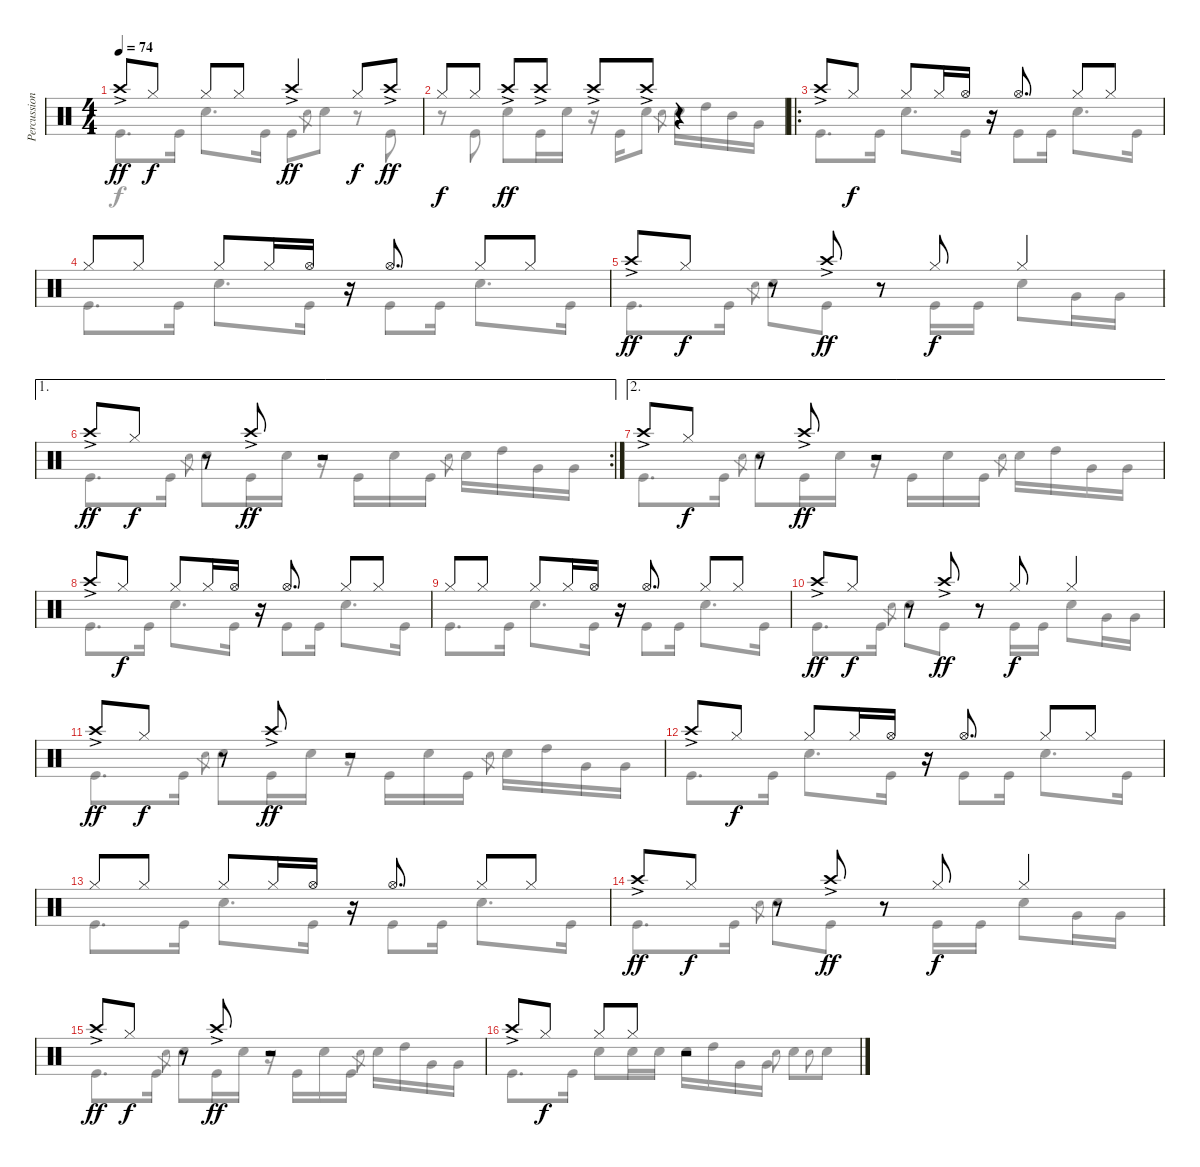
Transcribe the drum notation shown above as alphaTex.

\track ("Percussion" "Percussion") {instrument percussion}
\staff {score}
\articulation defaults
\voice
\ts (4 4)
\tempo 74
\clef neutral
\ks c "Crash high (hit)"{ac}.8{dy ff beam Up} "Hi-Hat (closed)".8{dy f beam Up} "Hi-Hat (closed)".8{beam Up} "Hi-Hat (closed)".8{beam Up} "Crash high (hit)"{ac}.4{dy ff beam Up} "Hi-Hat (closed)".8{dy f beam Up} "Crash high (hit)"{ac}.8{dy ff beam Up}
|
"Hi-Hat (closed)".8{dy f beam Up} "Hi-Hat (closed)".8{beam Up} "Crash high (hit)"{ac}.8{dy ff beam Up} "Crash high (hit)"{ac}.8{beam Up} "Crash high (hit)"{ac}.8{beam Up} "Crash high (hit)"{ac}.8{beam Up} r.4 |
\ro "Crash high (hit)"{ac}.8{beam Up} "Hi-Hat (closed)".8{dy f beam Up} "Hi-Hat (closed)".8{beam Up} "Hi-Hat (closed)".16{beam Up} "Hi-Hat (open)".16{beam Up}
r.16 "Hi-Hat (open)".8{d beam Up beam split} "Hi-Hat (closed)".8{beam Up beam merge} "Hi-Hat (closed)".8{beam Up} |
"Hi-Hat (closed)".8{beam Up} "Hi-Hat (closed)".8{beam Up} "Hi-Hat (closed)".8{beam Up} "Hi-Hat (closed)".16{beam Up} "Hi-Hat (open)".16{beam Up} r.16 "Hi-Hat (open)".8{d beam Up beam split} "Hi-Hat (closed)".8{beam Up beam merge} "Hi-Hat (closed)".8{beam Up} |
"Crash high (hit)"{ac}.8{dy ff beam Up} "Hi-Hat (closed)".8{dy f beam Up} r.8 "Crash high (hit)"{ac}.8{dy ff beam Up} r.8 "Hi-Hat (closed)".8{dy f beam Up} "Hi-Hat (closed)".4{beam Up} |
\ae 1
\rc 2 "Crash high (hit)"{ac}.8{dy ff beam Up} "Hi-Hat (closed)".8{dy f beam Up}
r.8 "Crash high (hit)"{ac}.8{dy ff beam Up} r.2 |
\ae 2 "Crash high (hit)"{ac}.8{beam Up} "Hi-Hat (closed)".8{dy f beam Up}
r.8 "Crash high (hit)"{ac}.8{dy ff beam Up} r.2 |
"Crash high (hit)"{ac}.8{beam Up} "Hi-Hat (closed)".8{dy f beam Up} "Hi-Hat (closed)".8{beam Up} "Hi-Hat (closed)".16{beam Up} "Hi-Hat (open)".16{beam Up} r.16 "Hi-Hat (open)".8{d beam Up beam split} "Hi-Hat (closed)".8{beam Up beam merge} "Hi-Hat (closed)".8{beam Up} |
"Hi-Hat (closed)".8{beam Up} "Hi-Hat (closed)".8{beam Up} "Hi-Hat (closed)".8{beam Up} "Hi-Hat (closed)".16{beam Up} "Hi-Hat (open)".16{beam Up} r.16 "Hi-Hat (open)".8{d beam Up beam split} "Hi-Hat (closed)".8{beam Up beam merge} "Hi-Hat (closed)".8{beam Up} |
"Crash high (hit)"{ac}.8{dy ff beam Up} "Hi-Hat (closed)".8{dy f beam Up} r.8 "Crash high (hit)"{ac}.8{dy ff beam Up} r.8 "Hi-Hat (closed)".8{dy f beam Up} "Hi-Hat (closed)".4{beam Up} |
"Crash high (hit)"{ac}.8{dy ff beam Up} "Hi-Hat (closed)".8{dy f beam Up} r.8 "Crash high (hit)"{ac}.8{dy ff beam Up} r.2 |
"Crash high (hit)"{ac}.8{beam Up} "Hi-Hat (closed)".8{dy f beam Up} "Hi-Hat (closed)".8{beam Up} "Hi-Hat (closed)".16{beam Up} "Hi-Hat (open)".16{beam Up} r.16 "Hi-Hat (open)".8{d beam Up beam split} "Hi-Hat (closed)".8{beam Up beam merge} "Hi-Hat (closed)".8{beam Up} |
"Hi-Hat (closed)".8{beam Up} "Hi-Hat (closed)".8{beam Up} "Hi-Hat (closed)".8{beam Up} "Hi-Hat (closed)".16{beam Up} "Hi-Hat (open)".16{beam Up} r.16 "Hi-Hat (open)".8{d beam Up beam split} "Hi-Hat (closed)".8{beam Up beam merge} "Hi-Hat (closed)".8{beam Up} |
"Crash high (hit)"{ac}.8{dy ff beam Up} "Hi-Hat (closed)".8{dy f beam Up} r.8 "Crash high (hit)"{ac}.8{dy ff beam Up} r.8 "Hi-Hat (closed)".8{dy f beam Up} "Hi-Hat (closed)".4{beam Up} |
"Crash high (hit)"{ac}.8{dy ff beam Up} "Hi-Hat (closed)".8{dy f beam Up} r.8 "Crash high (hit)"{ac}.8{dy ff beam Up} r.2 |
"Crash high (hit)"{ac}.8{beam Up} "Hi-Hat (closed)".8{dy f beam Up beam split} "Hi-Hat (closed)".8{beam Up} "Hi-Hat (closed)".8{beam Up} r.2
\voice
\clef neutral
\ottava regular
\simile none
\ks c "Kick (hit)".8{d dy f} "Kick (hit)".16 "Snare (hit) 2".8{d} "Kick (hit)".16 "Kick (hit)".8 "Snare (hit) 2".8{gr} "Snare (hit) 2".8
r.8 "Kick (hit)".8 |
r.8 "Kick (hit)".8 "Snare (hit) 2".8 "Kick (hit)".16 "Snare (hit) 2".16 r.16 "Kick (hit)".16 "Snare (hit) 2".8 "Snare (hit) 2".8{gr} "Snare (hit) 2".16 "High Tom (hit)".16 "Mid Tom (hit)".16 "Very Low Tom (hit)".16 |
"Kick (hit)".8{d} "Kick (hit)".16 "Snare (hit) 2".8{d} "Kick (hit)".16 r.16 "Kick (hit)".8 "Kick (hit)".16 "Snare (hit) 2".8{d} "Kick (hit)".16 |
"Kick (hit)".8{d} "Kick (hit)".16 "Snare (hit) 2".8{d} "Kick (hit)".16 r.16 "Kick (hit)".8 "Kick (hit)".16 "Snare (hit) 2".8{d} "Kick (hit)".16 |
"Kick (hit)".8{d} "Kick (hit)".16 "Snare (hit) 2"{h}.8{gr} "Snare (hit) 2".8 "Kick (hit)".8 r.8 "Kick (hit)".16 "Kick (hit)".16 "Snare (hit) 2".8 "Very Low Tom (hit)".16 "Very Low Tom (hit)".16 |
"Kick (hit)".8{d} "Kick (hit)".16 "Snare (hit) 2"{h}.8{gr} "Snare (hit) 2".8 "Kick (hit)".16 "Snare (hit) 2".16 r.16 "Kick (hit)".16 "Snare (hit) 2".16 "Kick (hit)".16 "Snare (hit) 2"{h}.8{gr} "Snare (hit) 2".16 "High Tom (hit)".16 "Very Low Tom (hit)".16 "Very Low Tom (hit)".16 |
"Kick (hit)".8{d} "Kick (hit)".16 "Snare (hit) 2"{h}.8{gr} "Snare (hit) 2".8 "Kick (hit)".16 "Snare (hit) 2".16 r.16 "Kick (hit)".16 "Snare (hit) 2".16 "Kick (hit)".16 "Snare (hit) 2"{h}.8{gr} "Snare (hit) 2".16 "High Tom (hit)".16 "Very Low Tom (hit)".16 "Very Low Tom (hit)".16 |
"Kick (hit)".8{d} "Kick (hit)".16 "Snare (hit) 2".8{d} "Kick (hit)".16 r.16 "Kick (hit)".8 "Kick (hit)".16 "Snare (hit) 2".8{d} "Kick (hit)".16 |
"Kick (hit)".8{d} "Kick (hit)".16 "Snare (hit) 2".8{d} "Kick (hit)".16 r.16 "Kick (hit)".8 "Kick (hit)".16 "Snare (hit) 2".8{d} "Kick (hit)".16 |
"Kick (hit)".8{d} "Kick (hit)".16 "Snare (hit) 2"{h}.8{gr} "Snare (hit) 2".8 "Kick (hit)".8 r.8 "Kick (hit)".16 "Kick (hit)".16 "Snare (hit) 2".8 "Very Low Tom (hit)".16 "Very Low Tom (hit)".16 |
"Kick (hit)".8{d} "Kick (hit)".16 "Snare (hit) 2"{h}.8{gr} "Snare (hit) 2".8 "Kick (hit)".16 "Snare (hit) 2".16 r.16 "Kick (hit)".16 "Snare (hit) 2".16 "Kick (hit)".16 "Snare (hit) 2"{h}.8{gr} "Snare (hit) 2".16 "High Tom (hit)".16 "Very Low Tom (hit)".16 "Very Low Tom (hit)".16 |
"Kick (hit)".8{d} "Kick (hit)".16 "Snare (hit) 2".8{d} "Kick (hit)".16 r.16 "Kick (hit)".8 "Kick (hit)".16 "Snare (hit) 2".8{d} "Kick (hit)".16 |
"Kick (hit)".8{d} "Kick (hit)".16 "Snare (hit) 2".8{d} "Kick (hit)".16 r.16 "Kick (hit)".8 "Kick (hit)".16 "Snare (hit) 2".8{d} "Kick (hit)".16 |
"Kick (hit)".8{d} "Kick (hit)".16 "Snare (hit) 2"{h}.8{gr} "Snare (hit) 2".8 "Kick (hit)".8 r.8 "Kick (hit)".16 "Kick (hit)".16 "Snare (hit) 2".8 "Very Low Tom (hit)".16 "Very Low Tom (hit)".16 |
"Kick (hit)".8{d} "Kick (hit)".16 "Snare (hit) 2"{h}.8{gr} "Snare (hit) 2".8 "Kick (hit)".16 "Snare (hit) 2".16 r.16 "Kick (hit)".16 "Snare (hit) 2".16 "Kick (hit)".16 "Snare (hit) 2"{h}.8{gr} "Snare (hit) 2".16 "High Tom (hit)".16 "Very Low Tom (hit)".16 "Very Low Tom (hit)".16 |
"Kick (hit)".8{d} "Kick (hit)".16 "Snare (hit) 2".8 "Snare (hit) 2".16 "Snare (hit) 2".16 "Snare (hit) 2".16 "High Tom (hit)".16 "Very Low Tom (hit)".16 "Very Low Tom (hit)".16 "Snare (hit) 2"{h}.8{gr onbeat} "Snare (hit) 2".8 "Snare (hit) 2"{h}.8{gr onbeat} "Snare (hit) 2".8
